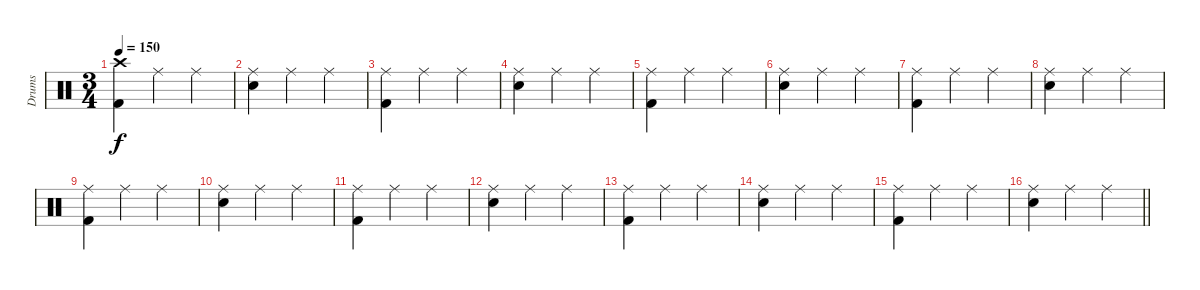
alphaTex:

\track ("Drums" "Drums") {instrument percussion}
\staff {score}
\articulation defaults
\ts (3 4)
\tempo 150
\clef neutral
\ks c
("Crash high (hit)" "Kick (hit) 2").4{dy f volume 1} "Ride (middle)".4 "Ride (middle)".4 |
("Ride (middle)" "Snare (hit) 2").4 "Ride (middle)".4 "Ride (middle)".4 |
("Ride (middle)" "Kick (hit) 2").4 "Ride (middle)".4 "Ride (middle)".4 |
("Ride (middle)" "Snare (hit) 2").4 "Ride (middle)".4 "Ride (middle)".4 |
("Ride (middle)" "Kick (hit) 2").4 "Ride (middle)".4 "Ride (middle)".4 |
("Ride (middle)" "Snare (hit) 2").4 "Ride (middle)".4 "Ride (middle)".4 |
("Ride (middle)" "Kick (hit) 2").4 "Ride (middle)".4 "Ride (middle)".4 |
("Ride (middle)" "Snare (hit) 2").4 "Ride (middle)".4 "Ride (middle)".4 |
("Ride (middle)" "Kick (hit) 2").4 "Ride (middle)".4 "Ride (middle)".4 |
("Ride (middle)" "Snare (hit) 2").4 "Ride (middle)".4 "Ride (middle)".4 |
("Ride (middle)" "Kick (hit) 2").4 "Ride (middle)".4 "Ride (middle)".4 |
("Ride (middle)" "Snare (hit) 2").4 "Ride (middle)".4 "Ride (middle)".4 |
("Ride (middle)" "Kick (hit) 2").4 "Ride (middle)".4 "Ride (middle)".4 |
("Ride (middle)" "Snare (hit) 2").4 "Ride (middle)".4 "Ride (middle)".4 |
("Ride (middle)" "Kick (hit) 2").4 "Ride (middle)".4 "Ride (middle)".4 |
\barLineRight lightlight
("Ride (middle)" "Snare (hit) 2").4 "Ride (middle)".4 "Ride (middle)".4
